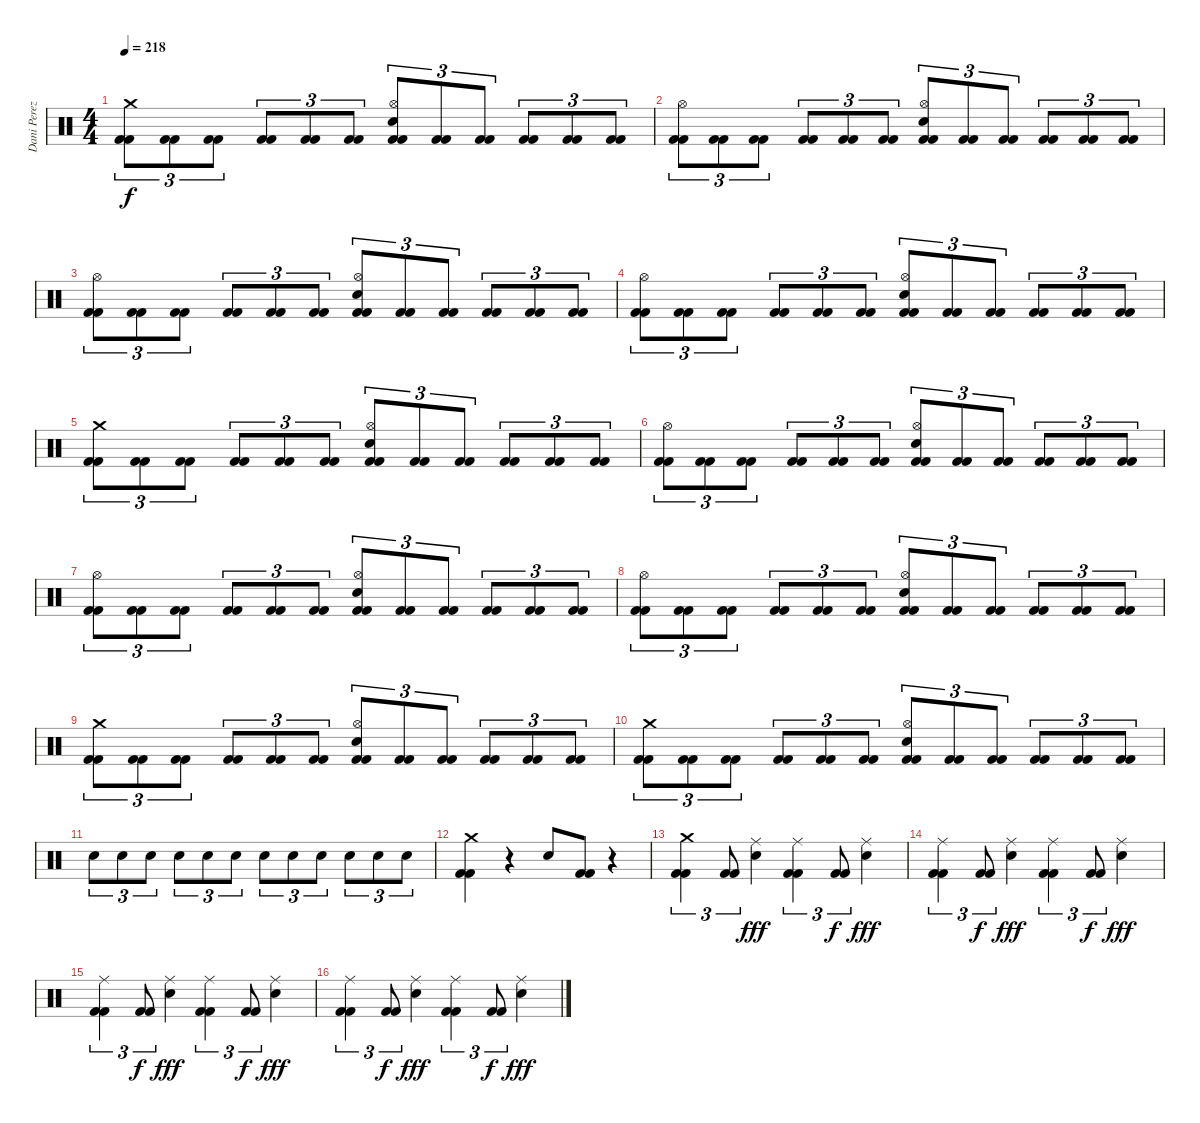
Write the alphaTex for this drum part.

\track ("Dani Perez" "Dani Perez") {instrument percussion}
\staff {score}
\articulation defaults
\ts (4 4)
\tempo 218
\clef neutral
\ks c
("Crash medium (hit)" "Kick (hit) 2" "Kick (hit) 2").8{tu (3 2) dy f} ("Kick (hit) 2" "Kick (hit) 2").8{tu (3 2)} ("Kick (hit) 2" "Kick (hit) 2").8{tu (3 2)} ("Kick (hit) 2" "Kick (hit) 2").8{tu (3 2)} ("Kick (hit) 2" "Kick (hit) 2").8{tu (3 2)} ("Kick (hit) 2" "Kick (hit) 2").8{tu (3 2)} ("Hi-Hat (open)" "Snare (hit) 2" "Kick (hit) 2" "Kick (hit) 2").8{tu (3 2)} ("Kick (hit) 2" "Kick (hit) 2").8{tu (3 2)} ("Kick (hit) 2" "Kick (hit) 2").8{tu (3 2)} ("Kick (hit) 2" "Kick (hit) 2").8{tu (3 2)} ("Kick (hit) 2" "Kick (hit) 2").8{tu (3 2)} ("Kick (hit) 2" "Kick (hit) 2").8{tu (3 2)} |
("Hi-Hat (open)" "Kick (hit) 2" "Kick (hit) 2").8{tu (3 2)} ("Kick (hit) 2" "Kick (hit) 2").8{tu (3 2)} ("Kick (hit) 2" "Kick (hit) 2").8{tu (3 2)} ("Kick (hit) 2" "Kick (hit) 2").8{tu (3 2)} ("Kick (hit) 2" "Kick (hit) 2").8{tu (3 2)} ("Kick (hit) 2" "Kick (hit) 2").8{tu (3 2)} ("Hi-Hat (open)" "Snare (hit) 2" "Kick (hit) 2" "Kick (hit) 2").8{tu (3 2)} ("Kick (hit) 2" "Kick (hit) 2").8{tu (3 2)} ("Kick (hit) 2" "Kick (hit) 2").8{tu (3 2)} ("Kick (hit) 2" "Kick (hit) 2").8{tu (3 2)} ("Kick (hit) 2" "Kick (hit) 2").8{tu (3 2)} ("Kick (hit) 2" "Kick (hit) 2").8{tu (3 2)} |
("Hi-Hat (open)" "Kick (hit) 2" "Kick (hit) 2").8{tu (3 2)} ("Kick (hit) 2" "Kick (hit) 2").8{tu (3 2)} ("Kick (hit) 2" "Kick (hit) 2").8{tu (3 2)} ("Kick (hit) 2" "Kick (hit) 2").8{tu (3 2)} ("Kick (hit) 2" "Kick (hit) 2").8{tu (3 2)} ("Kick (hit) 2" "Kick (hit) 2").8{tu (3 2)} ("Hi-Hat (open)" "Snare (hit) 2" "Kick (hit) 2" "Kick (hit) 2").8{tu (3 2)} ("Kick (hit) 2" "Kick (hit) 2").8{tu (3 2)} ("Kick (hit) 2" "Kick (hit) 2").8{tu (3 2)} ("Kick (hit) 2" "Kick (hit) 2").8{tu (3 2)} ("Kick (hit) 2" "Kick (hit) 2").8{tu (3 2)} ("Kick (hit) 2" "Kick (hit) 2").8{tu (3 2)} |
("Hi-Hat (open)" "Kick (hit) 2" "Kick (hit) 2").8{tu (3 2)} ("Kick (hit) 2" "Kick (hit) 2").8{tu (3 2)} ("Kick (hit) 2" "Kick (hit) 2").8{tu (3 2)} ("Kick (hit) 2" "Kick (hit) 2").8{tu (3 2)} ("Kick (hit) 2" "Kick (hit) 2").8{tu (3 2)} ("Kick (hit) 2" "Kick (hit) 2").8{tu (3 2)} ("Hi-Hat (open)" "Snare (hit) 2" "Kick (hit) 2" "Kick (hit) 2").8{tu (3 2)} ("Kick (hit) 2" "Kick (hit) 2").8{tu (3 2)} ("Kick (hit) 2" "Kick (hit) 2").8{tu (3 2)} ("Kick (hit) 2" "Kick (hit) 2").8{tu (3 2)} ("Kick (hit) 2" "Kick (hit) 2").8{tu (3 2)} ("Kick (hit) 2" "Kick (hit) 2").8{tu (3 2)} |
("Crash medium (hit)" "Kick (hit) 2" "Kick (hit) 2").8{tu (3 2)} ("Kick (hit) 2" "Kick (hit) 2").8{tu (3 2)} ("Kick (hit) 2" "Kick (hit) 2").8{tu (3 2)} ("Kick (hit) 2" "Kick (hit) 2").8{tu (3 2)} ("Kick (hit) 2" "Kick (hit) 2").8{tu (3 2)} ("Kick (hit) 2" "Kick (hit) 2").8{tu (3 2)} ("Hi-Hat (open)" "Snare (hit) 2" "Kick (hit) 2" "Kick (hit) 2").8{tu (3 2)} ("Kick (hit) 2" "Kick (hit) 2").8{tu (3 2)} ("Kick (hit) 2" "Kick (hit) 2").8{tu (3 2)} ("Kick (hit) 2" "Kick (hit) 2").8{tu (3 2)} ("Kick (hit) 2" "Kick (hit) 2").8{tu (3 2)} ("Kick (hit) 2" "Kick (hit) 2").8{tu (3 2)} |
("Hi-Hat (open)" "Kick (hit) 2" "Kick (hit) 2").8{tu (3 2)} ("Kick (hit) 2" "Kick (hit) 2").8{tu (3 2)} ("Kick (hit) 2" "Kick (hit) 2").8{tu (3 2)} ("Kick (hit) 2" "Kick (hit) 2").8{tu (3 2)} ("Kick (hit) 2" "Kick (hit) 2").8{tu (3 2)} ("Kick (hit) 2" "Kick (hit) 2").8{tu (3 2)} ("Hi-Hat (open)" "Snare (hit) 2" "Kick (hit) 2" "Kick (hit) 2").8{tu (3 2)} ("Kick (hit) 2" "Kick (hit) 2").8{tu (3 2)} ("Kick (hit) 2" "Kick (hit) 2").8{tu (3 2)} ("Kick (hit) 2" "Kick (hit) 2").8{tu (3 2)} ("Kick (hit) 2" "Kick (hit) 2").8{tu (3 2)} ("Kick (hit) 2" "Kick (hit) 2").8{tu (3 2)} |
("Hi-Hat (open)" "Kick (hit) 2" "Kick (hit) 2").8{tu (3 2)} ("Kick (hit) 2" "Kick (hit) 2").8{tu (3 2)} ("Kick (hit) 2" "Kick (hit) 2").8{tu (3 2)} ("Kick (hit) 2" "Kick (hit) 2").8{tu (3 2)} ("Kick (hit) 2" "Kick (hit) 2").8{tu (3 2)} ("Kick (hit) 2" "Kick (hit) 2").8{tu (3 2)} ("Hi-Hat (open)" "Snare (hit) 2" "Kick (hit) 2" "Kick (hit) 2").8{tu (3 2)} ("Kick (hit) 2" "Kick (hit) 2").8{tu (3 2)} ("Kick (hit) 2" "Kick (hit) 2").8{tu (3 2)} ("Kick (hit) 2" "Kick (hit) 2").8{tu (3 2)} ("Kick (hit) 2" "Kick (hit) 2").8{tu (3 2)} ("Kick (hit) 2" "Kick (hit) 2").8{tu (3 2)} |
("Hi-Hat (open)" "Kick (hit) 2" "Kick (hit) 2").8{tu (3 2)} ("Kick (hit) 2" "Kick (hit) 2").8{tu (3 2)} ("Kick (hit) 2" "Kick (hit) 2").8{tu (3 2)} ("Kick (hit) 2" "Kick (hit) 2").8{tu (3 2)} ("Kick (hit) 2" "Kick (hit) 2").8{tu (3 2)} ("Kick (hit) 2" "Kick (hit) 2").8{tu (3 2)} ("Hi-Hat (open)" "Snare (hit) 2" "Kick (hit) 2" "Kick (hit) 2").8{tu (3 2)} ("Kick (hit) 2" "Kick (hit) 2").8{tu (3 2)} ("Kick (hit) 2" "Kick (hit) 2").8{tu (3 2)} ("Kick (hit) 2" "Kick (hit) 2").8{tu (3 2)} ("Kick (hit) 2" "Kick (hit) 2").8{tu (3 2)} ("Kick (hit) 2" "Kick (hit) 2").8{tu (3 2)} |
("Crash medium (hit)" "Kick (hit) 2" "Kick (hit) 2").8{tu (3 2)} ("Kick (hit) 2" "Kick (hit) 2").8{tu (3 2)} ("Kick (hit) 2" "Kick (hit) 2").8{tu (3 2)} ("Kick (hit) 2" "Kick (hit) 2").8{tu (3 2)} ("Kick (hit) 2" "Kick (hit) 2").8{tu (3 2)} ("Kick (hit) 2" "Kick (hit) 2").8{tu (3 2)} ("Hi-Hat (open)" "Snare (hit) 2" "Kick (hit) 2" "Kick (hit) 2").8{tu (3 2)} ("Kick (hit) 2" "Kick (hit) 2").8{tu (3 2)} ("Kick (hit) 2" "Kick (hit) 2").8{tu (3 2)} ("Kick (hit) 2" "Kick (hit) 2").8{tu (3 2)} ("Kick (hit) 2" "Kick (hit) 2").8{tu (3 2)} ("Kick (hit) 2" "Kick (hit) 2").8{tu (3 2)} |
("Crash medium (hit)" "Kick (hit) 2" "Kick (hit) 2").8{tu (3 2)} ("Kick (hit) 2" "Kick (hit) 2").8{tu (3 2)} ("Kick (hit) 2" "Kick (hit) 2").8{tu (3 2)} ("Kick (hit) 2" "Kick (hit) 2").8{tu (3 2)} ("Kick (hit) 2" "Kick (hit) 2").8{tu (3 2)} ("Kick (hit) 2" "Kick (hit) 2").8{tu (3 2)} ("Hi-Hat (open)" "Snare (hit) 2" "Kick (hit) 2" "Kick (hit) 2").8{tu (3 2)} ("Kick (hit) 2" "Kick (hit) 2").8{tu (3 2)} ("Kick (hit) 2" "Kick (hit) 2").8{tu (3 2)} ("Kick (hit) 2" "Kick (hit) 2").8{tu (3 2)} ("Kick (hit) 2" "Kick (hit) 2").8{tu (3 2)} ("Kick (hit) 2" "Kick (hit) 2").8{tu (3 2)} |
"Snare (hit) 2".8{tu (3 2)} "Snare (hit) 2".8{tu (3 2)} "Snare (hit) 2".8{tu (3 2)} "Snare (hit) 2".8{tu (3 2)} "Snare (hit) 2".8{tu (3 2)} "Snare (hit) 2".8{tu (3 2)} "Snare (hit) 2".8{tu (3 2)} "Snare (hit) 2".8{tu (3 2)} "Snare (hit) 2".8{tu (3 2)} "Snare (hit) 2".8{tu (3 2)} "Snare (hit) 2".8{tu (3 2)} "Snare (hit) 2".8{tu (3 2)} |
("Crash medium (hit)" "Kick (hit) 2" "Kick (hit) 2").4 r.4 "Snare (hit) 2".8 ("Kick (hit) 2" "Kick (hit) 2").8 r.4 |
("Crash medium (hit)" "Kick (hit) 2" "Kick (hit) 2").4{tu (3 2)} ("Kick (hit) 2" "Kick (hit) 2").8{tu (3 2)} ("Ride (middle)" "Snare (hit) 2").4{dy fff} ("Ride (middle)" "Kick (hit) 2" "Kick (hit) 2").4{tu (3 2)} ("Kick (hit) 2" "Kick (hit) 2").8{tu (3 2) dy f} ("Ride (middle)" "Snare (hit) 2").4{dy fff} |
("Ride (middle)" "Kick (hit) 2" "Kick (hit) 2").4{tu (3 2)} ("Kick (hit) 2" "Kick (hit) 2").8{tu (3 2) dy f} ("Ride (middle)" "Snare (hit) 2").4{dy fff} ("Ride (middle)" "Kick (hit) 2" "Kick (hit) 2").4{tu (3 2)} ("Kick (hit) 2" "Kick (hit) 2").8{tu (3 2) dy f} ("Ride (middle)" "Snare (hit) 2").4{dy fff} |
("Ride (middle)" "Kick (hit) 2" "Kick (hit) 2").4{tu (3 2)} ("Kick (hit) 2" "Kick (hit) 2").8{tu (3 2) dy f} ("Ride (middle)" "Snare (hit) 2").4{dy fff} ("Ride (middle)" "Kick (hit) 2" "Kick (hit) 2").4{tu (3 2)} ("Kick (hit) 2" "Kick (hit) 2").8{tu (3 2) dy f} ("Ride (middle)" "Snare (hit) 2").4{dy fff} |
("Ride (middle)" "Kick (hit) 2" "Kick (hit) 2").4{tu (3 2)} ("Kick (hit) 2" "Kick (hit) 2").8{tu (3 2) dy f} ("Ride (middle)" "Snare (hit) 2").4{dy fff} ("Ride (middle)" "Kick (hit) 2" "Kick (hit) 2").4{tu (3 2)} ("Kick (hit) 2" "Kick (hit) 2").8{tu (3 2) dy f} ("Ride (middle)" "Snare (hit) 2").4{dy fff}
